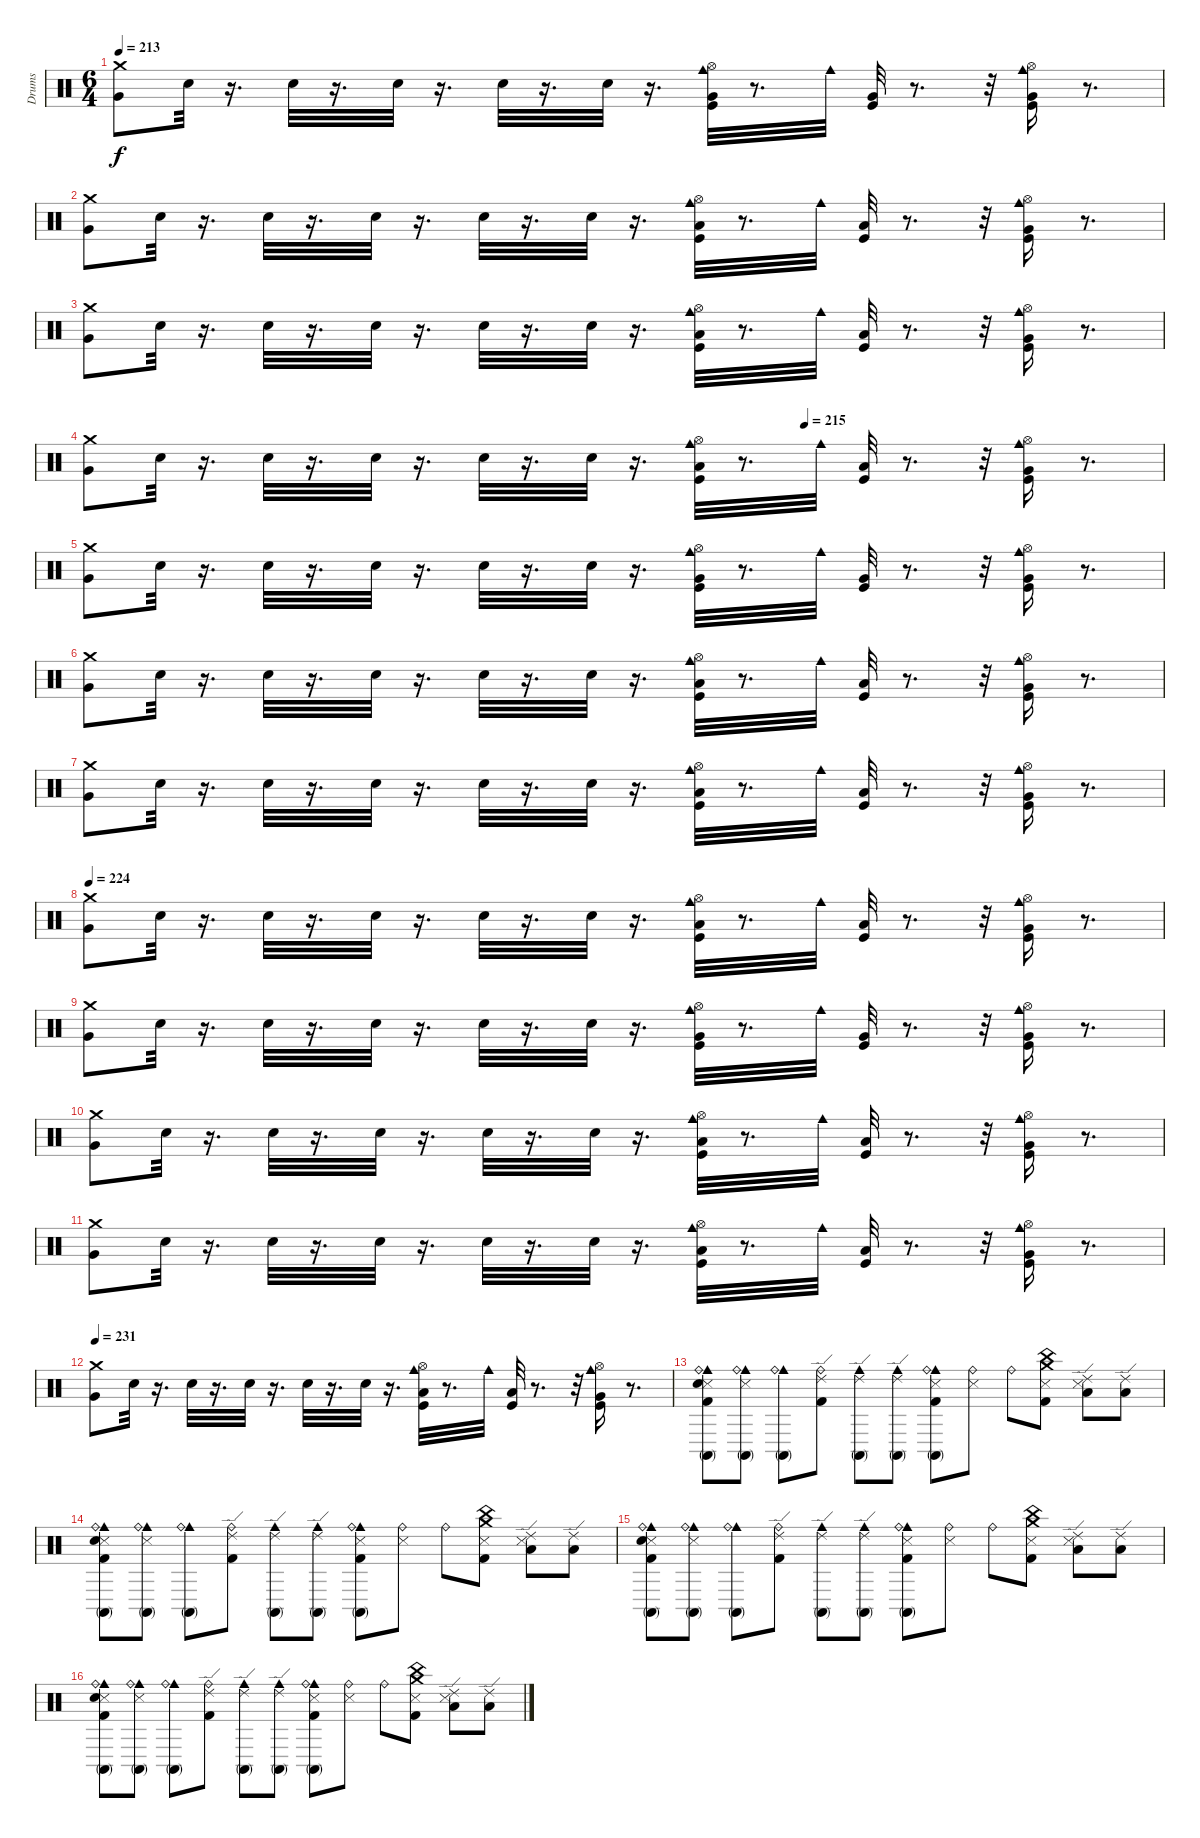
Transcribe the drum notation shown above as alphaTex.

\track ("Drums" "Drums") {instrument percussion}
\staff {score}
\articulation defaults
\ts (6 4)
\tempo 213
\clef neutral
\ks c
("Very Low Tom (hit)" "Crash medium (hit)").8{dy f} "Snare (hit) 2".32 r.16{d} "Snare (hit) 2".32 r.16{d} "Snare (hit) 2".32 r.16{d} "Snare (hit) 2".32 r.16{d} "Electric Snare (hit)".32 r.16{d} ("Very Low Tom (hit)" "Kick (hit)" "Hi-Hat (open)" "Cowbell medium (hit)").32 r.8{d} "Cowbell medium (hit)".32 ("Very Low Tom (hit)" "Kick (hit)").32 r.8{d} r.32 ("Very Low Tom (hit)" "Hi-Hat (open)" "Kick (hit)" "Cowbell medium (hit)").16 r.8{d} |
("Very Low Tom (hit)" "Crash medium (hit)").8 "Snare (hit) 2".32 r.16{d} "Snare (hit) 2".32 r.16{d} "Snare (hit) 2".32 r.16{d} "Snare (hit) 2".32 r.16{d} "Snare (hit) 2".32 r.16{d} ("Kick (hit)" "Hi-Hat (open)" "Cowbell medium (hit)" "Low Floor Tom (hit)").32 r.8{d} "Cowbell medium (hit)".32 ("Kick (hit)" "Low Floor Tom (hit)").32 r.8{d} r.32 ("Hi-Hat (open)" "Kick (hit)" "Cowbell medium (hit)" "Very Low Tom (hit)").16 r.8{d} |
("Very Low Tom (hit)" "Crash medium (hit)").8 "Snare (hit) 2".32 r.16{d} "Snare (hit) 2".32 r.16{d} "Snare (hit) 2".32 r.16{d} "Snare (hit) 2".32 r.16{d} "Snare (hit) 2".32 r.16{d} ("Kick (hit)" "Hi-Hat (open)" "Cowbell medium (hit)" "Low Floor Tom (hit)").32 r.8{d} "Cowbell medium (hit)".32 ("Kick (hit)" "Low Floor Tom (hit)").32 r.8{d} r.32 ("Hi-Hat (open)" "Kick (hit)" "Cowbell medium (hit)" "Very Low Tom (hit)").16 r.8{d} |
\tempo (215 0.6666666666666666)
("Very Low Tom (hit)" "Crash medium (hit)").8 "Snare (hit) 2".32 r.16{d} "Snare (hit) 2".32 r.16{d} "Snare (hit) 2".32 r.16{d} "Snare (hit) 2".32 r.16{d} "Snare (hit) 2".32 r.16{d} ("Kick (hit)" "Hi-Hat (open)" "Cowbell medium (hit)" "Low Floor Tom (hit)").32 r.8{d} "Cowbell medium (hit)".32 ("Kick (hit)" "Low Floor Tom (hit)").32 r.8{d} r.32 ("Hi-Hat (open)" "Kick (hit)" "Cowbell medium (hit)" "Very Low Tom (hit)").16 r.8{d} |
("Very Low Tom (hit)" "Crash medium (hit)").8 "Snare (hit) 2".32 r.16{d} "Snare (hit) 2".32 r.16{d} "Snare (hit) 2".32 r.16{d} "Snare (hit) 2".32 r.16{d} "Electric Snare (hit)".32 r.16{d} ("Very Low Tom (hit)" "Kick (hit)" "Hi-Hat (open)" "Cowbell medium (hit)").32 r.8{d} "Cowbell medium (hit)".32 ("Very Low Tom (hit)" "Kick (hit)").32 r.8{d} r.32 ("Very Low Tom (hit)" "Hi-Hat (open)" "Kick (hit)" "Cowbell medium (hit)").16 r.8{d} |
("Very Low Tom (hit)" "Crash medium (hit)").8 "Snare (hit) 2".32 r.16{d} "Snare (hit) 2".32 r.16{d} "Snare (hit) 2".32 r.16{d} "Snare (hit) 2".32 r.16{d} "Snare (hit) 2".32 r.16{d} ("Kick (hit)" "Hi-Hat (open)" "Cowbell medium (hit)" "Low Floor Tom (hit)").32 r.8{d} "Cowbell medium (hit)".32 ("Kick (hit)" "Low Floor Tom (hit)").32 r.8{d} r.32 ("Hi-Hat (open)" "Kick (hit)" "Cowbell medium (hit)" "Very Low Tom (hit)").16 r.8{d} |
("Very Low Tom (hit)" "Crash medium (hit)").8 "Snare (hit) 2".32 r.16{d} "Snare (hit) 2".32 r.16{d} "Snare (hit) 2".32 r.16{d} "Snare (hit) 2".32 r.16{d} "Snare (hit) 2".32 r.16{d} ("Kick (hit)" "Hi-Hat (open)" "Cowbell medium (hit)" "Low Floor Tom (hit)").32 r.8{d} "Cowbell medium (hit)".32 ("Kick (hit)" "Low Floor Tom (hit)").32 r.8{d} r.32 ("Hi-Hat (open)" "Kick (hit)" "Cowbell medium (hit)" "Very Low Tom (hit)").16 r.8{d} |
\tempo 224
("Very Low Tom (hit)" "Crash medium (hit)").8 "Snare (hit) 2".32 r.16{d} "Snare (hit) 2".32 r.16{d} "Snare (hit) 2".32 r.16{d} "Snare (hit) 2".32 r.16{d} "Snare (hit) 2".32 r.16{d} ("Kick (hit)" "Hi-Hat (open)" "Cowbell medium (hit)" "Low Floor Tom (hit)").32 r.8{d} "Cowbell medium (hit)".32 ("Kick (hit)" "Low Floor Tom (hit)").32 r.8{d} r.32 ("Hi-Hat (open)" "Kick (hit)" "Cowbell medium (hit)" "Very Low Tom (hit)").16 r.8{d} |
("Very Low Tom (hit)" "Crash medium (hit)").8 "Snare (hit) 2".32 r.16{d} "Snare (hit) 2".32 r.16{d} "Snare (hit) 2".32 r.16{d} "Snare (hit) 2".32 r.16{d} "Electric Snare (hit)".32 r.16{d} ("Very Low Tom (hit)" "Kick (hit)" "Hi-Hat (open)" "Cowbell medium (hit)").32 r.8{d} "Cowbell medium (hit)".32 ("Very Low Tom (hit)" "Kick (hit)").32 r.8{d} r.32 ("Very Low Tom (hit)" "Hi-Hat (open)" "Kick (hit)" "Cowbell medium (hit)").16 r.8{d} |
("Very Low Tom (hit)" "Crash medium (hit)").8 "Snare (hit) 2".32 r.16{d} "Snare (hit) 2".32 r.16{d} "Snare (hit) 2".32 r.16{d} "Snare (hit) 2".32 r.16{d} "Snare (hit) 2".32 r.16{d} ("Kick (hit)" "Hi-Hat (open)" "Cowbell medium (hit)" "Low Floor Tom (hit)").32 r.8{d} "Cowbell medium (hit)".32 ("Kick (hit)" "Low Floor Tom (hit)").32 r.8{d} r.32 ("Hi-Hat (open)" "Kick (hit)" "Cowbell medium (hit)" "Very Low Tom (hit)").16 r.8{d} |
("Very Low Tom (hit)" "Crash medium (hit)").8 "Snare (hit) 2".32 r.16{d} "Snare (hit) 2".32 r.16{d} "Snare (hit) 2".32 r.16{d} "Snare (hit) 2".32 r.16{d} "Snare (hit) 2".32 r.16{d} ("Kick (hit)" "Hi-Hat (open)" "Cowbell medium (hit)" "Low Floor Tom (hit)").32 r.8{d} "Cowbell medium (hit)".32 ("Kick (hit)" "Low Floor Tom (hit)").32 r.8{d} r.32 ("Hi-Hat (open)" "Kick (hit)" "Cowbell medium (hit)" "Very Low Tom (hit)").16 r.8{d} |
\tempo 231
("Very Low Tom (hit)" "Crash medium (hit)").8 "Snare (hit) 2".32 r.16{d} "Snare (hit) 2".32 r.16{d} "Snare (hit) 2".32 r.16{d} "Snare (hit) 2".32 r.16{d} "Snare (hit) 2".32 r.16{d} ("Kick (hit)" "Hi-Hat (open)" "Cowbell medium (hit)" "Low Floor Tom (hit)").32 r.8{d} "Cowbell medium (hit)".32 ("Kick (hit)" "Low Floor Tom (hit)").32 r.8{d} r.32 ("Hi-Hat (open)" "Kick (hit)" "Cowbell medium (hit)" "Very Low Tom (hit)").16 r.8{d} |
("Conga high (mute)" "Kick (hit) 2" "Snare (side stick) 3" "Snare (hit) 2" "Cowbell medium (hit)" "Ride (bell)").8 ("Snare (side stick) 3" "Cowbell medium (hit)" "Conga high (mute)" "Ride (bell)").8 ("Cowbell medium (hit)" "Conga high (mute)" "Ride (bell)").8 ("Ride (edge) 2" "Kick (hit) 2" "Ride (bell)").8 ("Conga high (mute)" "Ride (edge) 2" "Cowbell medium (hit)").8 ("Cowbell medium (hit)" "Conga high (mute)" "Ride (edge) 2").8 ("Cowbell medium (hit)" "Conga high (mute)" "Kick (hit) 2" "Snare (side stick) 3" "Ride (bell)").8 ("Snare (side stick) 3" "Ride (bell)").8 "Ride (bell)".8 ("China (hit)" "Crash medium (hit)" "Kick (hit) 2" "Snare (side stick) 3").8 ("Ride (edge) 2" "Low Tom (hit)" "Snare (side stick) 3").8 ("Ride (edge) 2" "Low Tom (hit)").8 |
("Conga high (mute)" "Kick (hit) 2" "Snare (side stick) 3" "Snare (hit) 2" "Cowbell medium (hit)" "Ride (bell)").8 ("Snare (side stick) 3" "Cowbell medium (hit)" "Conga high (mute)" "Ride (bell)").8 ("Cowbell medium (hit)" "Conga high (mute)" "Ride (bell)").8 ("Ride (edge) 2" "Kick (hit) 2" "Ride (bell)").8 ("Conga high (mute)" "Ride (edge) 2" "Cowbell medium (hit)").8 ("Cowbell medium (hit)" "Conga high (mute)" "Ride (edge) 2").8 ("Cowbell medium (hit)" "Conga high (mute)" "Kick (hit) 2" "Snare (side stick) 3" "Ride (bell)").8 ("Snare (side stick) 3" "Ride (bell)").8 "Ride (bell)".8 ("China (hit)" "Crash medium (hit)" "Kick (hit) 2" "Snare (side stick) 3").8 ("Ride (edge) 2" "Low Tom (hit)" "Snare (side stick) 3").8 ("Ride (edge) 2" "Low Tom (hit)").8 |
("Conga high (mute)" "Kick (hit) 2" "Snare (side stick) 3" "Snare (hit) 2" "Cowbell medium (hit)" "Ride (bell)").8 ("Snare (side stick) 3" "Cowbell medium (hit)" "Conga high (mute)" "Ride (bell)").8 ("Cowbell medium (hit)" "Conga high (mute)" "Ride (bell)").8 ("Ride (edge) 2" "Kick (hit) 2" "Ride (bell)").8 ("Conga high (mute)" "Ride (edge) 2" "Cowbell medium (hit)").8 ("Cowbell medium (hit)" "Conga high (mute)" "Ride (edge) 2").8 ("Cowbell medium (hit)" "Conga high (mute)" "Kick (hit) 2" "Snare (side stick) 3" "Ride (bell)").8 ("Snare (side stick) 3" "Ride (bell)").8 "Ride (bell)".8 ("China (hit)" "Crash medium (hit)" "Kick (hit) 2" "Snare (side stick) 3").8 ("Ride (edge) 2" "Low Tom (hit)" "Snare (side stick) 3").8 ("Ride (edge) 2" "Low Tom (hit)").8 |
("Conga high (mute)" "Kick (hit) 2" "Snare (side stick) 3" "Snare (hit) 2" "Cowbell medium (hit)" "Ride (bell)").8 ("Snare (side stick) 3" "Cowbell medium (hit)" "Conga high (mute)" "Ride (bell)").8 ("Cowbell medium (hit)" "Conga high (mute)" "Ride (bell)").8 ("Ride (edge) 2" "Kick (hit) 2" "Ride (bell)").8 ("Conga high (mute)" "Ride (edge) 2" "Cowbell medium (hit)").8 ("Cowbell medium (hit)" "Conga high (mute)" "Ride (edge) 2").8 ("Cowbell medium (hit)" "Conga high (mute)" "Kick (hit) 2" "Snare (side stick) 3" "Ride (bell)").8 ("Snare (side stick) 3" "Ride (bell)").8 "Ride (bell)".8 ("China (hit)" "Crash medium (hit)" "Kick (hit) 2" "Snare (side stick) 3").8 ("Ride (edge) 2" "Low Tom (hit)" "Snare (side stick) 3").8 ("Ride (edge) 2" "Low Tom (hit)").8
